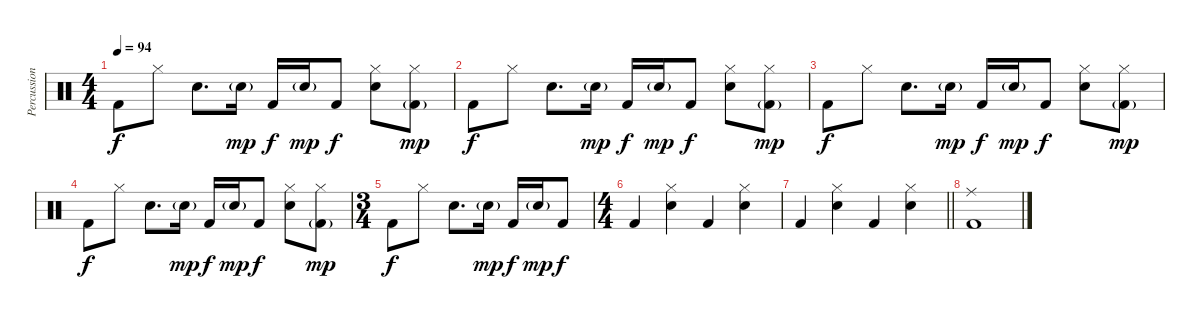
\track ("Percussion" "Percussion") {instrument percussion}
\staff {score}
\articulation defaults
\ts (4 4)
\tempo 94
\clef neutral
\ks c "Kick (hit) 2".8{dy f} "Hi-Hat (closed)".8 "Snare (hit) 2".8{d} "Snare (hit) 2"{g}.16{dy mp} "Kick (hit) 2".16{dy f} "Snare (hit) 2"{g}.16{dy mp} "Kick (hit) 2".8{dy f}
("Hi-Hat (closed)" "Snare (hit) 2").8 ("Hi-Hat (closed)" "Kick (hit) 2"{g}).8{dy mp} |
"Kick (hit) 2".8{dy f} "Hi-Hat (closed)".8 "Snare (hit) 2".8{d} "Snare (hit) 2"{g}.16{dy mp} "Kick (hit) 2".16{dy f} "Snare (hit) 2"{g}.16{dy mp} "Kick (hit) 2".8{dy f} ("Hi-Hat (closed)" "Snare (hit) 2").8 ("Hi-Hat (closed)" "Kick (hit) 2"{g}).8{dy mp} |
"Kick (hit) 2".8{dy f} "Hi-Hat (closed)".8 "Snare (hit) 2".8{d} "Snare (hit) 2"{g}.16{dy mp} "Kick (hit) 2".16{dy f} "Snare (hit) 2"{g}.16{dy mp} "Kick (hit) 2".8{dy f} ("Hi-Hat (closed)" "Snare (hit) 2").8 ("Hi-Hat (closed)" "Kick (hit) 2"{g}).8{dy mp} |
"Kick (hit) 2".8{dy f} "Hi-Hat (closed)".8 "Snare (hit) 2".8{d} "Snare (hit) 2"{g}.16{dy mp} "Kick (hit) 2".16{dy f} "Snare (hit) 2"{g}.16{dy mp} "Kick (hit) 2".8{dy f} ("Hi-Hat (closed)" "Snare (hit) 2").8 ("Hi-Hat (closed)" "Kick (hit) 2"{g}).8{dy mp} |
\ts (3 4)
"Kick (hit) 2".8{dy f} "Hi-Hat (closed)".8 "Snare (hit) 2".8{d} "Snare (hit) 2"{g}.16{dy mp} "Kick (hit) 2".16{dy f} "Snare (hit) 2"{g}.16{dy mp} "Kick (hit) 2".8{dy f} |
\ts (4 4)
"Kick (hit) 2".4 ("Hi-Hat (closed)" "Snare (hit) 2").4 "Kick (hit) 2".4 ("Hi-Hat (closed)" "Snare (hit) 2").4 |
\barLineRight lightlight "Kick (hit) 2".4
("Hi-Hat (closed)" "Snare (hit) 2").4 "Kick (hit) 2".4 ("Hi-Hat (closed)" "Snare (hit) 2").4 |
("Ride (middle)" "Kick (hit) 2").1
